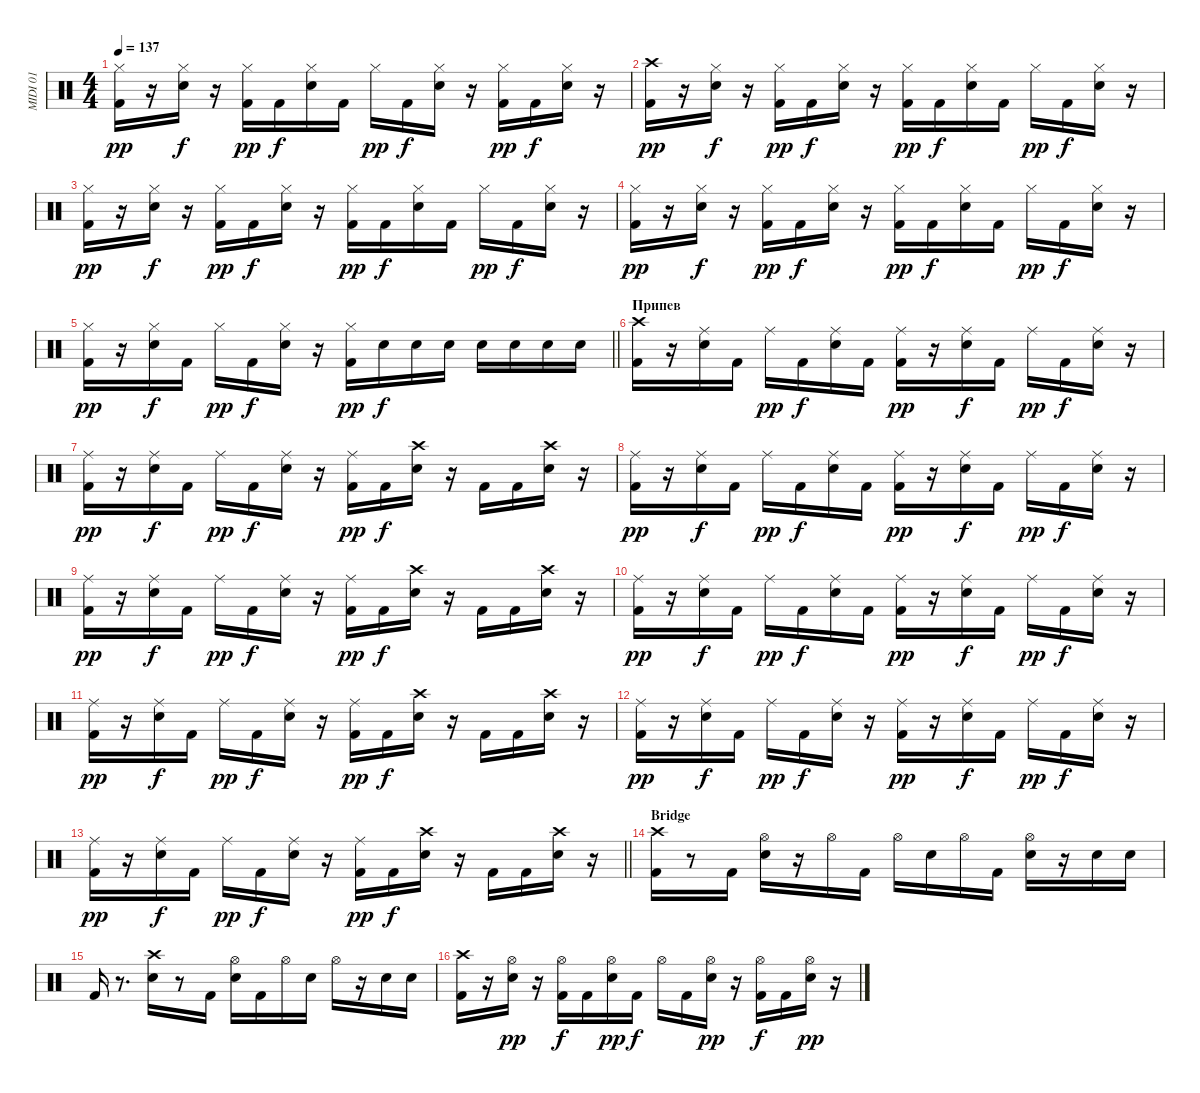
\track ("MIDI 01" "MIDI 01") {instrument percussion}
\staff {score}
\articulation defaults
\ts (4 4)
\tempo 137
\clef neutral
\ks c
("Hi-Hat (closed)" "Kick (hit) 2").16{dy pp} r.16 ("Snare (hit) 2" "Hi-Hat (closed)").16{dy f} r.16 ("Kick (hit) 2" "Hi-Hat (closed)").16{dy pp} "Kick (hit) 2".16{dy f} ("Snare (hit) 2" "Hi-Hat (closed)").16 "Kick (hit) 2".16 "Hi-Hat (closed)".16{dy pp} "Kick (hit) 2".16{dy f} ("Snare (hit) 2" "Hi-Hat (closed)").16 r.16 ("Kick (hit) 2" "Hi-Hat (closed)").16{dy pp} "Kick (hit) 2".16{dy f} ("Snare (hit) 2" "Hi-Hat (closed)").16 r.16 |
("Crash high (hit)" "Kick (hit) 2").16{dy pp} r.16 ("Snare (hit) 2" "Hi-Hat (closed)").16{dy f} r.16 ("Kick (hit) 2" "Hi-Hat (closed)").16{dy pp} "Kick (hit) 2".16{dy f} ("Snare (hit) 2" "Hi-Hat (closed)").16 r.16 ("Kick (hit) 2" "Hi-Hat (closed)").16{dy pp} "Kick (hit) 2".16{dy f} ("Snare (hit) 2" "Hi-Hat (closed)").16 "Kick (hit) 2".16 "Hi-Hat (closed)".16{dy pp} "Kick (hit) 2".16{dy f} ("Snare (hit) 2" "Hi-Hat (closed)").16 r.16 |
("Hi-Hat (closed)" "Kick (hit) 2").16{dy pp} r.16 ("Hi-Hat (closed)" "Snare (hit) 2").16{dy f} r.16 ("Hi-Hat (closed)" "Kick (hit) 2").16{dy pp} "Kick (hit) 2".16{dy f} ("Hi-Hat (closed)" "Snare (hit) 2").16 r.16 ("Kick (hit) 2" "Hi-Hat (closed)").16{dy pp} "Kick (hit) 2".16{dy f} ("Hi-Hat (closed)" "Snare (hit) 2").16 "Kick (hit) 2".16 "Hi-Hat (closed)".16{dy pp} "Kick (hit) 2".16{dy f} ("Hi-Hat (closed)" "Snare (hit) 2").16 r.16 |
("Kick (hit) 2" "Hi-Hat (closed)").16{dy pp} r.16 ("Snare (hit) 2" "Hi-Hat (closed)").16{dy f} r.16 ("Kick (hit) 2" "Hi-Hat (closed)").16{dy pp} "Kick (hit) 2".16{dy f} ("Snare (hit) 2" "Hi-Hat (closed)").16 r.16 ("Kick (hit) 2" "Hi-Hat (closed)").16{dy pp} "Kick (hit) 2".16{dy f} ("Snare (hit) 2" "Hi-Hat (closed)").16 "Kick (hit) 2".16 "Hi-Hat (closed)".16{dy pp} "Kick (hit) 2".16{dy f} ("Snare (hit) 2" "Hi-Hat (closed)").16 r.16 |
\barLineRight lightlight
("Hi-Hat (closed)" "Kick (hit) 2").16{dy pp} r.16 ("Snare (hit) 2" "Hi-Hat (closed)").16{dy f} "Kick (hit) 2".16 "Hi-Hat (closed)".16{dy pp} "Kick (hit) 2".16{dy f} ("Snare (hit) 2" "Hi-Hat (closed)").16 r.16 ("Hi-Hat (closed)" "Kick (hit) 2").16{dy pp} "Snare (hit) 2".16{dy f} "Snare (hit) 2".16 "Snare (hit) 2".16 "Snare (hit) 2".16 "Snare (hit) 2".16 "Snare (hit) 2".16 "Snare (hit) 2".16 |
\section ("" "Припев")
("Kick (hit) 2" "Crash high (hit)").16 r.16 ("Snare (hit) 2" "Ride (middle)").16 "Kick (hit) 2".16 "Ride (middle)".16{dy pp} "Kick (hit) 2".16{dy f} ("Snare (hit) 2" "Ride (middle)").16 "Kick (hit) 2".16 ("Kick (hit) 2" "Ride (middle)").16{dy pp} r.16 ("Snare (hit) 2" "Ride (middle)").16{dy f} "Kick (hit) 2".16 "Ride (middle)".16{dy pp} "Kick (hit) 2".16{dy f} ("Snare (hit) 2" "Ride (middle)").16 r.16 |
("Kick (hit) 2" "Ride (middle)").16{dy pp} r.16 ("Snare (hit) 2" "Ride (middle)").16{dy f} "Kick (hit) 2".16 "Ride (middle)".16{dy pp} "Kick (hit) 2".16{dy f} ("Snare (hit) 2" "Ride (middle)").16 r.16 ("Kick (hit) 2" "Ride (middle)").16{dy pp} "Kick (hit) 2".16{dy f} ("Snare (hit) 2" "Crash high (hit)").16 r.16 "Kick (hit) 2".16 "Kick (hit) 2".16 ("Snare (hit) 2" "Crash high (hit)").16 r.16 |
("Kick (hit) 2" "Ride (middle)").16{dy pp} r.16 ("Snare (hit) 2" "Ride (middle)").16{dy f} "Kick (hit) 2".16 "Ride (middle)".16{dy pp} "Kick (hit) 2".16{dy f} ("Snare (hit) 2" "Ride (middle)").16 "Kick (hit) 2".16 ("Kick (hit) 2" "Ride (middle)").16{dy pp} r.16 ("Snare (hit) 2" "Ride (middle)").16{dy f} "Kick (hit) 2".16 "Ride (middle)".16{dy pp} "Kick (hit) 2".16{dy f} ("Snare (hit) 2" "Ride (middle)").16 r.16 |
("Kick (hit) 2" "Ride (middle)").16{dy pp} r.16 ("Snare (hit) 2" "Ride (middle)").16{dy f} "Kick (hit) 2".16 "Ride (middle)".16{dy pp} "Kick (hit) 2".16{dy f} ("Snare (hit) 2" "Ride (middle)").16 r.16 ("Kick (hit) 2" "Ride (middle)").16{dy pp} "Kick (hit) 2".16{dy f} ("Crash high (hit)" "Snare (hit) 2").16 r.16 "Kick (hit) 2".16 "Kick (hit) 2".16 ("Crash high (hit)" "Snare (hit) 2").16 r.16 |
("Kick (hit) 2" "Ride (middle)").16{dy pp} r.16 ("Snare (hit) 2" "Ride (middle)").16{dy f} "Kick (hit) 2".16 "Ride (middle)".16{dy pp} "Kick (hit) 2".16{dy f} ("Snare (hit) 2" "Ride (middle)").16 "Kick (hit) 2".16 ("Kick (hit) 2" "Ride (middle)").16{dy pp} r.16 ("Snare (hit) 2" "Ride (middle)").16{dy f} "Kick (hit) 2".16 "Ride (middle)".16{dy pp} "Kick (hit) 2".16{dy f} ("Snare (hit) 2" "Ride (middle)").16 r.16 |
("Kick (hit) 2" "Ride (middle)").16{dy pp} r.16 ("Snare (hit) 2" "Ride (middle)").16{dy f} "Kick (hit) 2".16 "Ride (middle)".16{dy pp} "Kick (hit) 2".16{dy f} ("Snare (hit) 2" "Ride (middle)").16 r.16 ("Kick (hit) 2" "Ride (middle)").16{dy pp} "Kick (hit) 2".16{dy f} ("Crash high (hit)" "Snare (hit) 2").16 r.16 "Kick (hit) 2".16 "Kick (hit) 2".16 ("Crash high (hit)" "Snare (hit) 2").16 r.16 |
("Kick (hit) 2" "Ride (middle)").16{dy pp} r.16 ("Snare (hit) 2" "Ride (middle)").16{dy f} "Kick (hit) 2".16 "Ride (middle)".16{dy pp} "Kick (hit) 2".16{dy f} ("Snare (hit) 2" "Ride (middle)").16 r.16 ("Ride (middle)" "Kick (hit) 2").16{dy pp} r.16 ("Ride (middle)" "Snare (hit) 2").16{dy f} "Kick (hit) 2".16 "Ride (middle)".16{dy pp} "Kick (hit) 2".16{dy f} ("Ride (middle)" "Snare (hit) 2").16 r.16 |
\barLineRight lightlight
("Kick (hit) 2" "Ride (middle)").16{dy pp} r.16 ("Snare (hit) 2" "Ride (middle)").16{dy f} "Kick (hit) 2".16 "Ride (middle)".16{dy pp} "Kick (hit) 2".16{dy f} ("Snare (hit) 2" "Ride (middle)").16 r.16 ("Kick (hit) 2" "Ride (middle)").16{dy pp} "Kick (hit) 2".16{dy f} ("Crash high (hit)" "Snare (hit) 2").16 r.16 "Kick (hit) 2".16 "Kick (hit) 2".16 ("Crash high (hit)" "Snare (hit) 2").16 r.16 |
\section ("" "Bridge")
("Kick (hit) 2" "Crash high (hit)").16 r.8 "Kick (hit) 2".16 ("Snare (hit) 2" "Hi-Hat (open)").16 r.16 "Hi-Hat (open)".16 "Kick (hit) 2".16 "Hi-Hat (open)".16 "Snare (hit) 2".16 "Hi-Hat (open)".16 "Kick (hit) 2".16 ("Snare (hit) 2" "Hi-Hat (open)").16 r.16 "Snare (hit) 2".16 "Snare (hit) 2".16 |
"Kick (hit) 2".16 r.8{d} ("Snare (hit) 2" "Crash high (hit)").16 r.8 "Kick (hit) 2".16 ("Snare (hit) 2" "Hi-Hat (open)").16 "Kick (hit) 2".16 "Hi-Hat (open)".16 "Snare (hit) 2".16 "Hi-Hat (open)".16 r.16 "Snare (hit) 2".16 "Snare (hit) 2".16 |
("Kick (hit) 2" "Crash high (hit)").16 r.16 ("Snare (hit) 2" "Hi-Hat (open)").16{dy pp} r.16 ("Kick (hit) 2" "Hi-Hat (open)").16{dy f} "Kick (hit) 2".16 ("Snare (hit) 2" "Hi-Hat (open)").16{dy pp} "Kick (hit) 2".16{dy f} "Hi-Hat (open)".16 "Kick (hit) 2".16 ("Snare (hit) 2" "Hi-Hat (open)").16{dy pp} r.16 ("Kick (hit) 2" "Hi-Hat (open)").16{dy f} "Kick (hit) 2".16 ("Snare (hit) 2" "Hi-Hat (open)").16{dy pp} r.16
